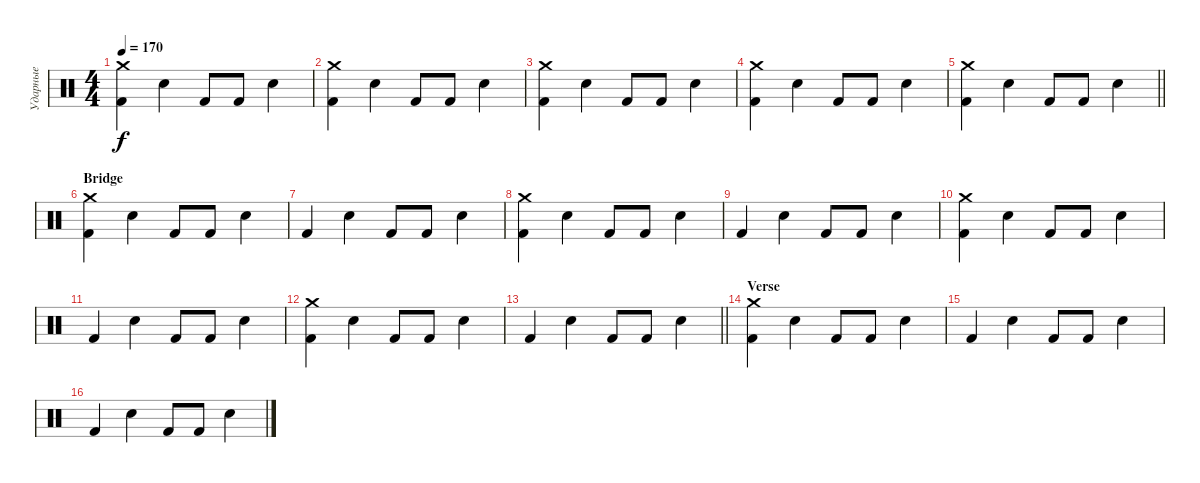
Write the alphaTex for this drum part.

\track ("Ударные" "Ударные") {instrument percussion}
\staff {score}
\articulation defaults
\ts (4 4)
\tempo 170
\clef neutral
\ks c
("Kick (hit) 2" "Crash medium (hit)").4{dy f} "Snare (hit) 2".4 "Kick (hit) 2".8 "Kick (hit) 2".8 "Snare (hit) 2".4 |
("Kick (hit) 2" "Crash medium (hit)").4 "Snare (hit) 2".4 "Kick (hit) 2".8 "Kick (hit) 2".8 "Snare (hit) 2".4 |
("Kick (hit) 2" "Crash medium (hit)").4 "Snare (hit) 2".4 "Kick (hit) 2".8 "Kick (hit) 2".8 "Snare (hit) 2".4 |
("Kick (hit) 2" "Crash medium (hit)").4 "Snare (hit) 2".4 "Kick (hit) 2".8 "Kick (hit) 2".8 "Snare (hit) 2".4 |
\barLineRight lightlight
("Kick (hit) 2" "Crash medium (hit)").4 "Snare (hit) 2".4 "Kick (hit) 2".8 "Kick (hit) 2".8 "Snare (hit) 2".4 |
\section ("" "Bridge")
("Kick (hit) 2" "Crash medium (hit)").4 "Snare (hit) 2".4 "Kick (hit) 2".8 "Kick (hit) 2".8 "Snare (hit) 2".4 |
"Kick (hit) 2".4 "Snare (hit) 2".4 "Kick (hit) 2".8 "Kick (hit) 2".8 "Snare (hit) 2".4 |
("Kick (hit) 2" "Crash medium (hit)").4 "Snare (hit) 2".4 "Kick (hit) 2".8 "Kick (hit) 2".8 "Snare (hit) 2".4 |
"Kick (hit) 2".4 "Snare (hit) 2".4 "Kick (hit) 2".8 "Kick (hit) 2".8 "Snare (hit) 2".4 |
("Kick (hit) 2" "Crash medium (hit)").4 "Snare (hit) 2".4 "Kick (hit) 2".8 "Kick (hit) 2".8 "Snare (hit) 2".4 |
"Kick (hit) 2".4 "Snare (hit) 2".4 "Kick (hit) 2".8 "Kick (hit) 2".8 "Snare (hit) 2".4 |
("Kick (hit) 2" "Crash medium (hit)").4 "Snare (hit) 2".4 "Kick (hit) 2".8 "Kick (hit) 2".8 "Snare (hit) 2".4 |
\barLineRight lightlight "Kick (hit) 2".4 "Snare (hit) 2".4 "Kick (hit) 2".8 "Kick (hit) 2".8 "Snare (hit) 2".4
|
\section ("" "Verse")
("Kick (hit) 2" "Crash medium (hit)").4 "Snare (hit) 2".4 "Kick (hit) 2".8 "Kick (hit) 2".8 "Snare (hit) 2".4 |
"Kick (hit) 2".4 "Snare (hit) 2".4 "Kick (hit) 2".8 "Kick (hit) 2".8 "Snare (hit) 2".4 |
"Kick (hit) 2".4 "Snare (hit) 2".4 "Kick (hit) 2".8 "Kick (hit) 2".8 "Snare (hit) 2".4
